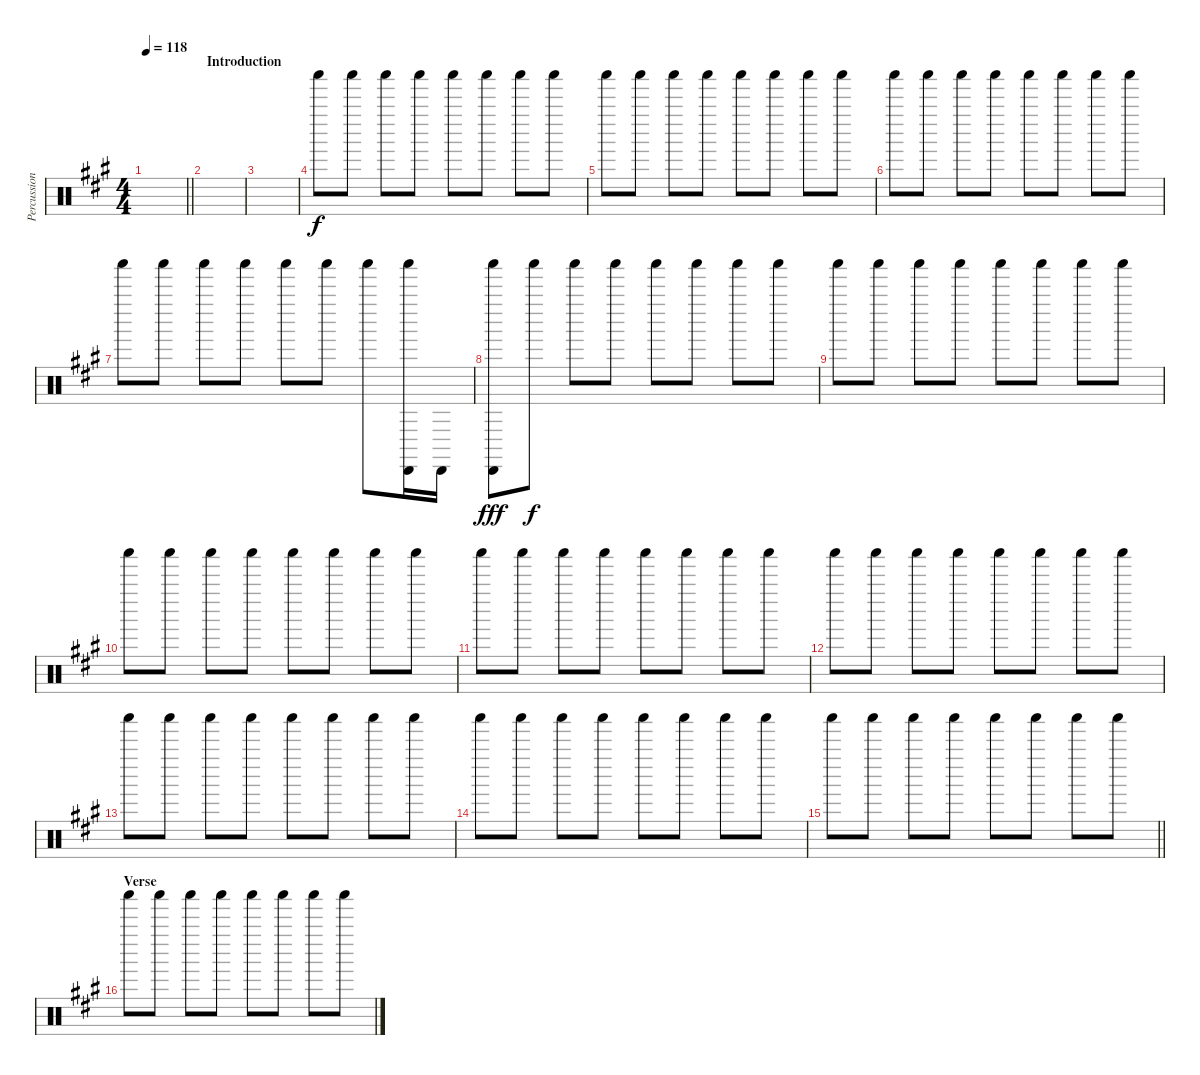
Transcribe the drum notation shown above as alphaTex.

\track ("Percussions" "Percussion") {instrument percussion}
\staff {score}
\articulation defaults
\ts (4 4)
\tempo 118
\clef neutral
\barLineRight lightlight
\ks f#minor
|
\section ("" "Introduction")
|
|
"Shaker (hit)".8 "Shaker (hit)".8 "Shaker (hit)".8 "Shaker (hit)".8 "Shaker (hit)".8 "Shaker (hit)".8 "Shaker (hit)".8 "Shaker (hit)".8 |
"Shaker (hit)".8 "Shaker (hit)".8 "Shaker (hit)".8 "Shaker (hit)".8 "Shaker (hit)".8 "Shaker (hit)".8 "Shaker (hit)".8 "Shaker (hit)".8 |
"Shaker (hit)".8 "Shaker (hit)".8 "Shaker (hit)".8 "Shaker (hit)".8 "Shaker (hit)".8 "Shaker (hit)".8 "Shaker (hit)".8 "Shaker (hit)".8 |
"Shaker (hit)".8 "Shaker (hit)".8 "Shaker (hit)".8 "Shaker (hit)".8 "Shaker (hit)".8 "Shaker (hit)".8 "Shaker (hit)".8 ("Shaker (hit)" "Cabasa (hit)").16 "Cabasa (hit)".16 |
("Shaker (hit)" "Cabasa (hit)").8{dy fff} "Shaker (hit)".8{dy f} "Shaker (hit)".8 "Shaker (hit)".8 "Shaker (hit)".8 "Shaker (hit)".8 "Shaker (hit)".8 "Shaker (hit)".8 |
"Shaker (hit)".8 "Shaker (hit)".8 "Shaker (hit)".8 "Shaker (hit)".8 "Shaker (hit)".8 "Shaker (hit)".8 "Shaker (hit)".8 "Shaker (hit)".8 |
"Shaker (hit)".8 "Shaker (hit)".8 "Shaker (hit)".8 "Shaker (hit)".8 "Shaker (hit)".8 "Shaker (hit)".8 "Shaker (hit)".8 "Shaker (hit)".8 |
"Shaker (hit)".8 "Shaker (hit)".8 "Shaker (hit)".8 "Shaker (hit)".8 "Shaker (hit)".8 "Shaker (hit)".8 "Shaker (hit)".8 "Shaker (hit)".8 |
"Shaker (hit)".8 "Shaker (hit)".8 "Shaker (hit)".8 "Shaker (hit)".8 "Shaker (hit)".8 "Shaker (hit)".8 "Shaker (hit)".8 "Shaker (hit)".8 |
"Shaker (hit)".8 "Shaker (hit)".8 "Shaker (hit)".8 "Shaker (hit)".8 "Shaker (hit)".8 "Shaker (hit)".8 "Shaker (hit)".8 "Shaker (hit)".8 |
"Shaker (hit)".8 "Shaker (hit)".8 "Shaker (hit)".8 "Shaker (hit)".8 "Shaker (hit)".8 "Shaker (hit)".8 "Shaker (hit)".8 "Shaker (hit)".8 |
\barLineRight lightlight "Shaker (hit)".8 "Shaker (hit)".8 "Shaker (hit)".8 "Shaker (hit)".8 "Shaker (hit)".8 "Shaker (hit)".8 "Shaker (hit)".8 "Shaker (hit)".8
|
\section ("" "Verse")
"Shaker (hit)".8 "Shaker (hit)".8 "Shaker (hit)".8 "Shaker (hit)".8 "Shaker (hit)".8 "Shaker (hit)".8 "Shaker (hit)".8 "Shaker (hit)".8
